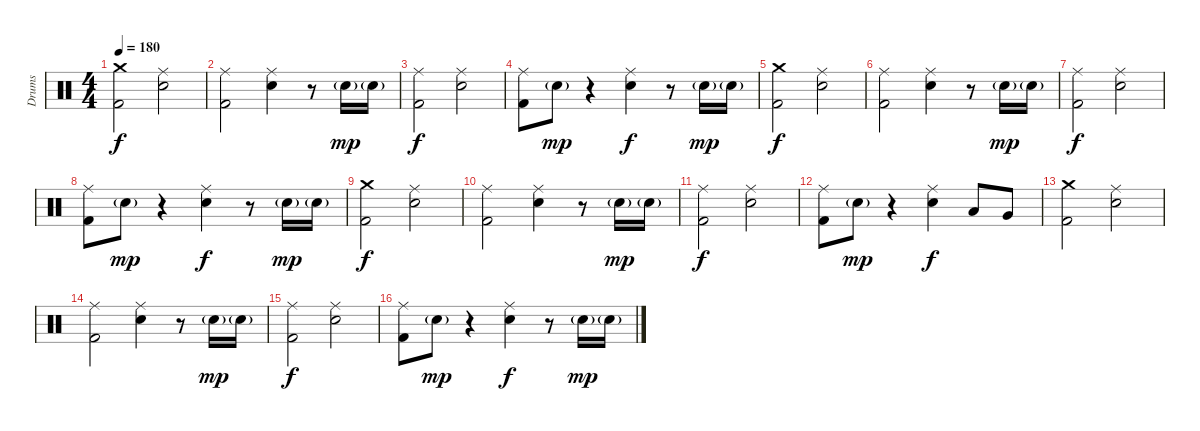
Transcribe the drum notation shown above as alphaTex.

\track ("Drums" "Drums") {instrument percussion}
\staff {score}
\articulation defaults
\ts (4 4)
\section ("" "")
\tempo 180
\clef neutral
\ks c
("Crash medium (hit)" "Kick (hit) 2").2{dy f} ("Ride (middle)" "Electric Snare (hit)").2 |
("Ride (middle)" "Kick (hit) 2").2 ("Ride (middle)" "Electric Snare (hit)").4 r.8 "Electric Snare (hit)"{g}.16{dy mp} "Electric Snare (hit)"{g}.16 |
("Ride (middle)" "Kick (hit) 2").2{dy f} ("Ride (middle)" "Electric Snare (hit)").2 |
("Ride (middle)" "Kick (hit) 2").8 "Electric Snare (hit)"{g}.8{dy mp} r.4 ("Ride (middle)" "Electric Snare (hit)").4{dy f} r.8 "Electric Snare (hit)"{g}.16{dy mp} "Electric Snare (hit)"{g}.16 |
("Crash medium (hit)" "Kick (hit) 2").2{dy f} ("Ride (middle)" "Electric Snare (hit)").2 |
("Ride (middle)" "Kick (hit) 2").2 ("Ride (middle)" "Electric Snare (hit)").4 r.8 "Electric Snare (hit)"{g}.16{dy mp} "Electric Snare (hit)"{g}.16 |
("Ride (middle)" "Kick (hit) 2").2{dy f} ("Ride (middle)" "Electric Snare (hit)").2 |
("Ride (middle)" "Kick (hit) 2").8 "Electric Snare (hit)"{g}.8{dy mp} r.4 ("Ride (middle)" "Electric Snare (hit)").4{dy f} r.8 "Electric Snare (hit)"{g}.16{dy mp} "Electric Snare (hit)"{g}.16 |
("Crash medium (hit)" "Kick (hit) 2").2{dy f} ("Ride (middle)" "Electric Snare (hit)").2 |
("Ride (middle)" "Kick (hit) 2").2 ("Ride (middle)" "Electric Snare (hit)").4 r.8 "Electric Snare (hit)"{g}.16{dy mp} "Electric Snare (hit)"{g}.16 |
("Ride (middle)" "Kick (hit) 2").2{dy f} ("Ride (middle)" "Electric Snare (hit)").2 |
("Ride (middle)" "Kick (hit) 2").8 "Electric Snare (hit)"{g}.8{dy mp} r.4 ("Ride (middle)" "Electric Snare (hit)").4{dy f} "Low Tom (hit)".8 "Very Low Tom (hit)".8 |
("Crash medium (hit)" "Kick (hit) 2").2 ("Ride (middle)" "Electric Snare (hit)").2 |
("Ride (middle)" "Kick (hit) 2").2 ("Ride (middle)" "Electric Snare (hit)").4 r.8 "Electric Snare (hit)"{g}.16{dy mp} "Electric Snare (hit)"{g}.16 |
("Ride (middle)" "Kick (hit) 2").2{dy f} ("Ride (middle)" "Electric Snare (hit)").2 |
("Ride (middle)" "Kick (hit) 2").8 "Electric Snare (hit)"{g}.8{dy mp} r.4 ("Ride (middle)" "Electric Snare (hit)").4{dy f} r.8 "Electric Snare (hit)"{g}.16{dy mp} "Electric Snare (hit)"{g}.16
